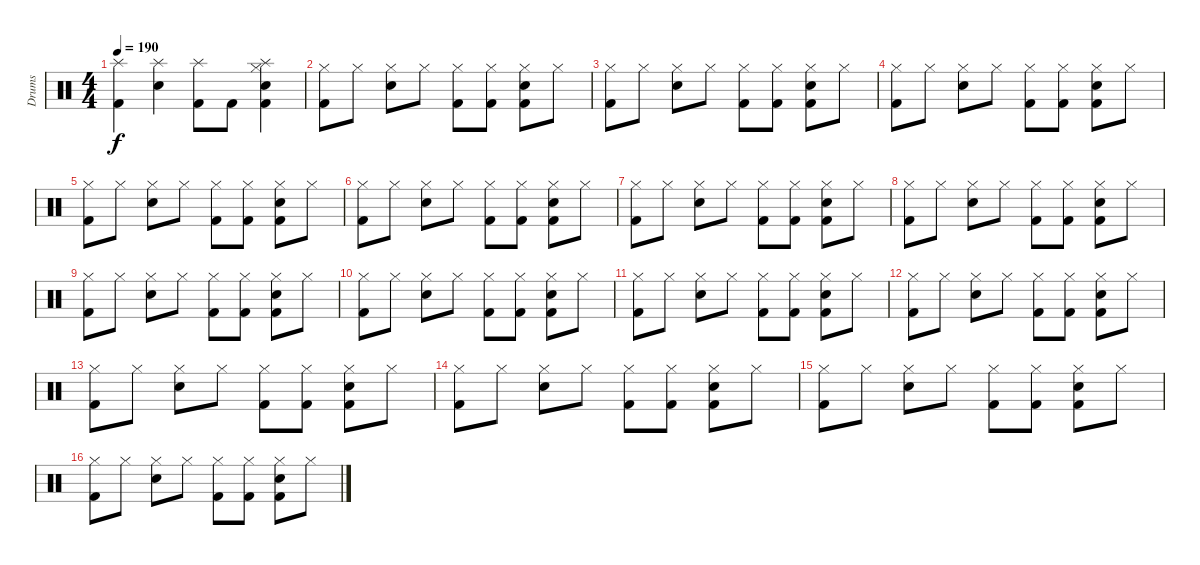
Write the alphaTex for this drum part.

\track ("Drums" "Drums") {instrument percussion}
\staff {score}
\articulation defaults
\ts (4 4)
\tempo 190
\clef neutral
\ks c
("Splash (hit)" "Kick (hit) 2").4{dy f} ("Splash (hit)" "Electric Snare (hit)").4 ("Splash (hit)" "Kick (hit) 2").8 "Kick (hit) 2".8 ("Splash (hit)" "Hi-Hat (closed)" "Electric Snare (hit)" "Kick (hit) 2").4 |
("Hi-Hat (closed)" "Kick (hit) 2").8 "Hi-Hat (closed)".8 ("Hi-Hat (closed)" "Electric Snare (hit)").8 "Hi-Hat (closed)".8 ("Hi-Hat (closed)" "Kick (hit) 2").8 ("Hi-Hat (closed)" "Kick (hit) 2").8 ("Hi-Hat (closed)" "Electric Snare (hit)" "Kick (hit) 2").8 "Hi-Hat (closed)".8 |
("Hi-Hat (closed)" "Kick (hit) 2").8 "Hi-Hat (closed)".8 ("Hi-Hat (closed)" "Electric Snare (hit)").8 "Hi-Hat (closed)".8 ("Hi-Hat (closed)" "Kick (hit) 2").8 ("Hi-Hat (closed)" "Kick (hit) 2").8 ("Hi-Hat (closed)" "Electric Snare (hit)" "Kick (hit) 2").8 "Hi-Hat (closed)".8 |
("Hi-Hat (closed)" "Kick (hit) 2").8 "Hi-Hat (closed)".8 ("Hi-Hat (closed)" "Electric Snare (hit)").8 "Hi-Hat (closed)".8 ("Hi-Hat (closed)" "Kick (hit) 2").8 ("Hi-Hat (closed)" "Kick (hit) 2").8 ("Hi-Hat (closed)" "Electric Snare (hit)" "Kick (hit) 2").8 "Hi-Hat (closed)".8 |
("Hi-Hat (closed)" "Kick (hit) 2").8 "Hi-Hat (closed)".8 ("Hi-Hat (closed)" "Electric Snare (hit)").8 "Hi-Hat (closed)".8 ("Hi-Hat (closed)" "Kick (hit) 2").8 ("Hi-Hat (closed)" "Kick (hit) 2").8 ("Hi-Hat (closed)" "Electric Snare (hit)" "Kick (hit) 2").8 "Hi-Hat (closed)".8 |
("Hi-Hat (closed)" "Kick (hit) 2").8 "Hi-Hat (closed)".8 ("Hi-Hat (closed)" "Electric Snare (hit)").8 "Hi-Hat (closed)".8 ("Hi-Hat (closed)" "Kick (hit) 2").8 ("Hi-Hat (closed)" "Kick (hit) 2").8 ("Hi-Hat (closed)" "Electric Snare (hit)" "Kick (hit) 2").8 "Hi-Hat (closed)".8 |
("Hi-Hat (closed)" "Kick (hit) 2").8 "Hi-Hat (closed)".8 ("Hi-Hat (closed)" "Electric Snare (hit)").8 "Hi-Hat (closed)".8 ("Hi-Hat (closed)" "Kick (hit) 2").8 ("Hi-Hat (closed)" "Kick (hit) 2").8 ("Hi-Hat (closed)" "Electric Snare (hit)" "Kick (hit) 2").8 "Hi-Hat (closed)".8 |
("Hi-Hat (closed)" "Kick (hit) 2").8 "Hi-Hat (closed)".8 ("Hi-Hat (closed)" "Electric Snare (hit)").8 "Hi-Hat (closed)".8 ("Hi-Hat (closed)" "Kick (hit) 2").8 ("Hi-Hat (closed)" "Kick (hit) 2").8 ("Hi-Hat (closed)" "Electric Snare (hit)" "Kick (hit) 2").8 "Hi-Hat (closed)".8 |
("Hi-Hat (closed)" "Kick (hit) 2").8 "Hi-Hat (closed)".8 ("Hi-Hat (closed)" "Electric Snare (hit)").8 "Hi-Hat (closed)".8 ("Hi-Hat (closed)" "Kick (hit) 2").8 ("Hi-Hat (closed)" "Kick (hit) 2").8 ("Hi-Hat (closed)" "Electric Snare (hit)" "Kick (hit) 2").8 "Hi-Hat (closed)".8 |
("Hi-Hat (closed)" "Kick (hit) 2").8 "Hi-Hat (closed)".8 ("Hi-Hat (closed)" "Electric Snare (hit)").8 "Hi-Hat (closed)".8 ("Hi-Hat (closed)" "Kick (hit) 2").8 ("Hi-Hat (closed)" "Kick (hit) 2").8 ("Hi-Hat (closed)" "Electric Snare (hit)" "Kick (hit) 2").8 "Hi-Hat (closed)".8 |
("Hi-Hat (closed)" "Kick (hit) 2").8 "Hi-Hat (closed)".8 ("Hi-Hat (closed)" "Electric Snare (hit)").8 "Hi-Hat (closed)".8 ("Hi-Hat (closed)" "Kick (hit) 2").8 ("Hi-Hat (closed)" "Kick (hit) 2").8 ("Hi-Hat (closed)" "Electric Snare (hit)" "Kick (hit) 2").8 "Hi-Hat (closed)".8 |
("Hi-Hat (closed)" "Kick (hit) 2").8 "Hi-Hat (closed)".8 ("Hi-Hat (closed)" "Electric Snare (hit)").8 "Hi-Hat (closed)".8 ("Hi-Hat (closed)" "Kick (hit) 2").8 ("Hi-Hat (closed)" "Kick (hit) 2").8 ("Hi-Hat (closed)" "Electric Snare (hit)" "Kick (hit) 2").8 "Hi-Hat (closed)".8 |
("Hi-Hat (closed)" "Kick (hit) 2").8 "Hi-Hat (closed)".8 ("Hi-Hat (closed)" "Electric Snare (hit)").8 "Hi-Hat (closed)".8 ("Hi-Hat (closed)" "Kick (hit) 2").8 ("Hi-Hat (closed)" "Kick (hit) 2").8 ("Hi-Hat (closed)" "Electric Snare (hit)" "Kick (hit) 2").8 "Hi-Hat (closed)".8 |
("Hi-Hat (closed)" "Kick (hit) 2").8 "Hi-Hat (closed)".8 ("Hi-Hat (closed)" "Electric Snare (hit)").8 "Hi-Hat (closed)".8 ("Hi-Hat (closed)" "Kick (hit) 2").8 ("Hi-Hat (closed)" "Kick (hit) 2").8 ("Hi-Hat (closed)" "Electric Snare (hit)" "Kick (hit) 2").8 "Hi-Hat (closed)".8 |
("Hi-Hat (closed)" "Kick (hit) 2").8 "Hi-Hat (closed)".8 ("Hi-Hat (closed)" "Electric Snare (hit)").8 "Hi-Hat (closed)".8 ("Hi-Hat (closed)" "Kick (hit) 2").8 ("Hi-Hat (closed)" "Kick (hit) 2").8 ("Hi-Hat (closed)" "Electric Snare (hit)" "Kick (hit) 2").8 "Hi-Hat (closed)".8 |
("Hi-Hat (closed)" "Kick (hit) 2").8 "Hi-Hat (closed)".8 ("Hi-Hat (closed)" "Electric Snare (hit)").8 "Hi-Hat (closed)".8 ("Hi-Hat (closed)" "Kick (hit) 2").8 ("Hi-Hat (closed)" "Kick (hit) 2").8 ("Hi-Hat (closed)" "Electric Snare (hit)" "Kick (hit) 2").8 "Hi-Hat (closed)".8
